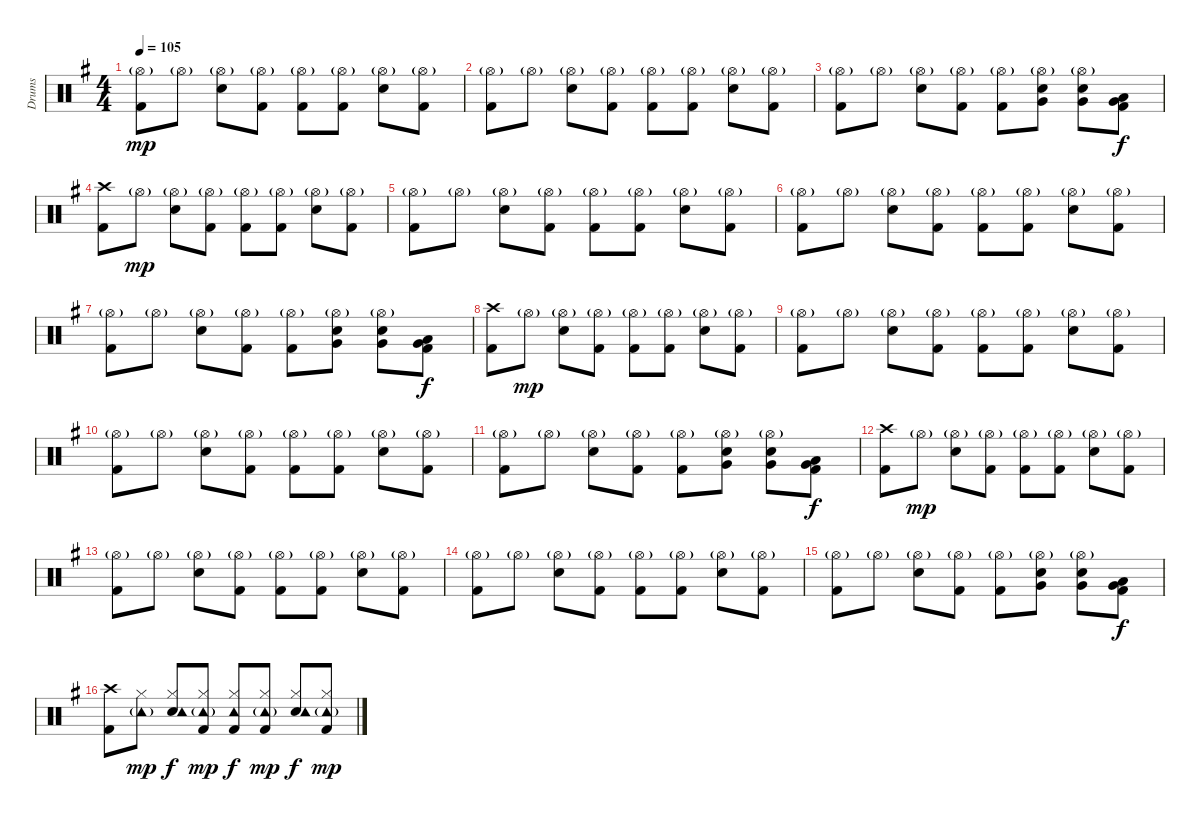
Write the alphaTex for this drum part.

\track ("Drums" "Drums") {instrument percussion}
\staff {score}
\articulation defaults
\ts (4 4)
\tempo 105
\clef neutral
\ks g
("Hi-Hat (open)"{g} "Kick (hit) 2").8{dy mp} "Hi-Hat (open)"{g}.8 ("Hi-Hat (open)"{g} "Snare (hit) 2").8 ("Hi-Hat (open)"{g} "Kick (hit) 2").8 ("Hi-Hat (open)"{g} "Kick (hit) 2").8 ("Hi-Hat (open)"{g} "Kick (hit) 2").8 ("Hi-Hat (open)"{g} "Snare (hit) 2").8 ("Hi-Hat (open)"{g} "Kick (hit) 2").8 |
("Hi-Hat (open)"{g} "Kick (hit) 2").8 "Hi-Hat (open)"{g}.8 ("Hi-Hat (open)"{g} "Snare (hit) 2").8 ("Hi-Hat (open)"{g} "Kick (hit) 2").8 ("Hi-Hat (open)"{g} "Kick (hit) 2").8 ("Hi-Hat (open)"{g} "Kick (hit) 2").8 ("Hi-Hat (open)"{g} "Snare (hit) 2").8 ("Hi-Hat (open)"{g} "Kick (hit) 2").8 |
("Hi-Hat (open)"{g} "Kick (hit) 2").8 "Hi-Hat (open)"{g}.8 ("Hi-Hat (open)"{g} "Snare (hit) 2").8 ("Hi-Hat (open)"{g} "Kick (hit) 2").8 ("Hi-Hat (open)"{g} "Kick (hit) 2").8 ("Hi-Hat (open)"{g} "Snare (hit) 2" "Very Low Tom (hit)").8 ("Hi-Hat (open)"{g} "Snare (hit) 2" "Very Low Tom (hit)").8 ("Kick (hit) 2" "Low Tom (hit)" "Very Low Tom (hit)").8{dy f} |
("Kick (hit) 2" "Crash high (hit)").8 "Hi-Hat (open)"{g}.8{dy mp} ("Hi-Hat (open)"{g} "Snare (hit) 2").8 ("Hi-Hat (open)"{g} "Kick (hit) 2").8 ("Hi-Hat (open)"{g} "Kick (hit) 2").8 ("Hi-Hat (open)"{g} "Kick (hit) 2").8 ("Hi-Hat (open)"{g} "Snare (hit) 2").8 ("Hi-Hat (open)"{g} "Kick (hit) 2").8 |
("Hi-Hat (open)"{g} "Kick (hit) 2").8 "Hi-Hat (open)"{g}.8 ("Hi-Hat (open)"{g} "Snare (hit) 2").8 ("Hi-Hat (open)"{g} "Kick (hit) 2").8 ("Hi-Hat (open)"{g} "Kick (hit) 2").8 ("Hi-Hat (open)"{g} "Kick (hit) 2").8 ("Hi-Hat (open)"{g} "Snare (hit) 2").8 ("Hi-Hat (open)"{g} "Kick (hit) 2").8 |
("Hi-Hat (open)"{g} "Kick (hit) 2").8 "Hi-Hat (open)"{g}.8 ("Hi-Hat (open)"{g} "Snare (hit) 2").8 ("Hi-Hat (open)"{g} "Kick (hit) 2").8 ("Hi-Hat (open)"{g} "Kick (hit) 2").8 ("Hi-Hat (open)"{g} "Kick (hit) 2").8 ("Hi-Hat (open)"{g} "Snare (hit) 2").8 ("Hi-Hat (open)"{g} "Kick (hit) 2").8 |
("Hi-Hat (open)"{g} "Kick (hit) 2").8 "Hi-Hat (open)"{g}.8 ("Hi-Hat (open)"{g} "Snare (hit) 2").8 ("Hi-Hat (open)"{g} "Kick (hit) 2").8 ("Hi-Hat (open)"{g} "Kick (hit) 2").8 ("Hi-Hat (open)"{g} "Snare (hit) 2" "Very Low Tom (hit)").8 ("Hi-Hat (open)"{g} "Snare (hit) 2" "Very Low Tom (hit)").8 ("Kick (hit) 2" "Low Tom (hit)" "Very Low Tom (hit)").8{dy f} |
("Kick (hit) 2" "Crash high (hit)").8 "Hi-Hat (open)"{g}.8{dy mp} ("Hi-Hat (open)"{g} "Snare (hit) 2").8 ("Hi-Hat (open)"{g} "Kick (hit) 2").8 ("Hi-Hat (open)"{g} "Kick (hit) 2").8 ("Hi-Hat (open)"{g} "Kick (hit) 2").8 ("Hi-Hat (open)"{g} "Snare (hit) 2").8 ("Hi-Hat (open)"{g} "Kick (hit) 2").8 |
("Hi-Hat (open)"{g} "Kick (hit) 2").8 "Hi-Hat (open)"{g}.8 ("Hi-Hat (open)"{g} "Snare (hit) 2").8 ("Hi-Hat (open)"{g} "Kick (hit) 2").8 ("Hi-Hat (open)"{g} "Kick (hit) 2").8 ("Hi-Hat (open)"{g} "Kick (hit) 2").8 ("Hi-Hat (open)"{g} "Snare (hit) 2").8 ("Hi-Hat (open)"{g} "Kick (hit) 2").8 |
("Hi-Hat (open)"{g} "Kick (hit) 2").8 "Hi-Hat (open)"{g}.8 ("Hi-Hat (open)"{g} "Snare (hit) 2").8 ("Hi-Hat (open)"{g} "Kick (hit) 2").8 ("Hi-Hat (open)"{g} "Kick (hit) 2").8 ("Hi-Hat (open)"{g} "Kick (hit) 2").8 ("Hi-Hat (open)"{g} "Snare (hit) 2").8 ("Hi-Hat (open)"{g} "Kick (hit) 2").8 |
("Hi-Hat (open)"{g} "Kick (hit) 2").8 "Hi-Hat (open)"{g}.8 ("Hi-Hat (open)"{g} "Snare (hit) 2").8 ("Hi-Hat (open)"{g} "Kick (hit) 2").8 ("Hi-Hat (open)"{g} "Kick (hit) 2").8 ("Hi-Hat (open)"{g} "Snare (hit) 2" "Very Low Tom (hit)").8 ("Hi-Hat (open)"{g} "Snare (hit) 2" "Very Low Tom (hit)").8 ("Kick (hit) 2" "Low Tom (hit)" "Very Low Tom (hit)").8{dy f} |
("Kick (hit) 2" "Crash high (hit)").8 "Hi-Hat (open)"{g}.8{dy mp} ("Hi-Hat (open)"{g} "Snare (hit) 2").8 ("Hi-Hat (open)"{g} "Kick (hit) 2").8 ("Hi-Hat (open)"{g} "Kick (hit) 2").8 ("Hi-Hat (open)"{g} "Kick (hit) 2").8 ("Hi-Hat (open)"{g} "Snare (hit) 2").8 ("Hi-Hat (open)"{g} "Kick (hit) 2").8 |
("Hi-Hat (open)"{g} "Kick (hit) 2").8 "Hi-Hat (open)"{g}.8 ("Hi-Hat (open)"{g} "Snare (hit) 2").8 ("Hi-Hat (open)"{g} "Kick (hit) 2").8 ("Hi-Hat (open)"{g} "Kick (hit) 2").8 ("Hi-Hat (open)"{g} "Kick (hit) 2").8 ("Hi-Hat (open)"{g} "Snare (hit) 2").8 ("Hi-Hat (open)"{g} "Kick (hit) 2").8 |
("Hi-Hat (open)"{g} "Kick (hit) 2").8 "Hi-Hat (open)"{g}.8 ("Hi-Hat (open)"{g} "Snare (hit) 2").8 ("Hi-Hat (open)"{g} "Kick (hit) 2").8 ("Hi-Hat (open)"{g} "Kick (hit) 2").8 ("Hi-Hat (open)"{g} "Kick (hit) 2").8 ("Hi-Hat (open)"{g} "Snare (hit) 2").8 ("Hi-Hat (open)"{g} "Kick (hit) 2").8 |
("Hi-Hat (open)"{g} "Kick (hit) 2").8 "Hi-Hat (open)"{g}.8 ("Hi-Hat (open)"{g} "Snare (hit) 2").8 ("Hi-Hat (open)"{g} "Kick (hit) 2").8 ("Hi-Hat (open)"{g} "Kick (hit) 2").8 ("Hi-Hat (open)"{g} "Snare (hit) 2" "Very Low Tom (hit)").8 ("Hi-Hat (open)"{g} "Snare (hit) 2" "Very Low Tom (hit)").8 ("Kick (hit) 2" "Low Tom (hit)" "Very Low Tom (hit)").8{dy f} |
("Kick (hit) 2" "Crash high (hit)").8 ("Hi-Hat (closed)" "Tambourine (hit)"{g}).8{dy mp} ("Hi-Hat (closed)" "Snare (hit) 2" "Tambourine (hit)").8{dy f} ("Hi-Hat (closed)" "Kick (hit) 2" "Tambourine (hit)"{g}).8{dy mp} ("Hi-Hat (closed)" "Kick (hit) 2" "Tambourine (hit)").8{dy f} ("Hi-Hat (closed)" "Kick (hit) 2" "Tambourine (hit)"{g}).8{dy mp} ("Hi-Hat (closed)" "Snare (hit) 2" "Tambourine (hit)").8{dy f} ("Hi-Hat (closed)" "Kick (hit) 2" "Tambourine (hit)"{g}).8{dy mp}
